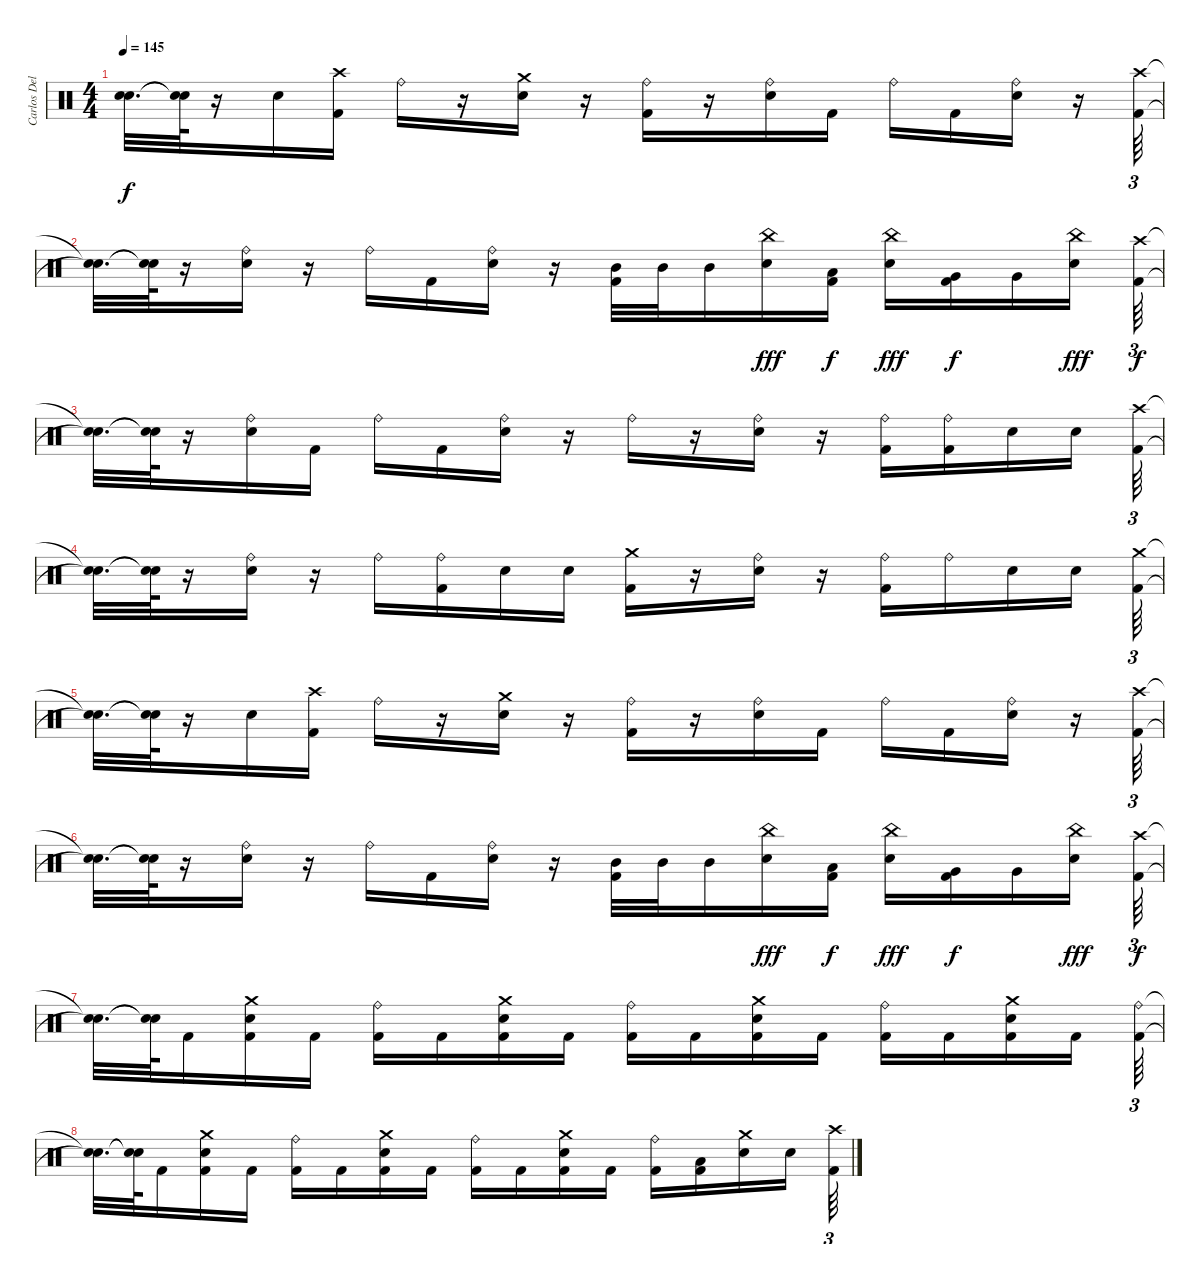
\track ("Carlos Delgado" "Carlos Del") {instrument percussion}
\staff {score}
\articulation defaults
\ts (4 4)
\tempo 145
\clef neutral
\ks c
("Snare (hit)"{t} "Snare (hit)"{t}).32{d dy f} ("Snare (hit)"{t} "Snare (hit)"{t}).64 r.16 "Electric Snare (hit)".16 ("Kick (hit) 2" "Crash high (hit)").16 "Ride (bell)".16 r.16 ("Crash medium (hit)" "Electric Snare (hit)").16 r.16 ("Ride (bell)" "Kick (hit) 2").16 r.16 ("Ride (bell)" "Electric Snare (hit)").16 "Kick (hit) 2".16 "Ride (bell)".16 "Kick (hit) 2".16 ("Ride (bell)" "Electric Snare (hit)").16 r.16 ("Kick (hit) 2" "Crash high (hit)").64{tu (3 2)} |
("Snare (hit)"{t} "Snare (hit)"{t}).32{d} ("Snare (hit)"{t} "Snare (hit)"{t}).64 r.16 ("Ride (bell)" "Electric Snare (hit)").16 r.16 "Ride (bell)".16 "Kick (hit) 2".16 ("Ride (bell)" "Electric Snare (hit)").16 r.16 ("Mid Tom (hit)" "Kick (hit) 2").32 "Mid Tom (hit)".32 "Mid Tom (hit)".16 ("China (hit)" "Electric Snare (hit)").16{dy fff} ("Low Tom (hit)" "Kick (hit) 2").16{dy f} ("China (hit)" "Electric Snare (hit)").16{dy fff} ("Very Low Tom (hit)" "Kick (hit) 2").16{dy f} "Very Low Tom (hit)".16 ("Electric Snare (hit)" "China (hit)").16{dy fff} ("Crash high (hit)" "Kick (hit) 2").64{tu (3 2) dy f} |
("Snare (hit)"{t} "Snare (hit)"{t}).32{d} ("Snare (hit)"{t} "Snare (hit)"{t}).64 r.16 ("Ride (bell)" "Electric Snare (hit)").16 "Kick (hit) 2".16 "Ride (bell)".16 "Kick (hit) 2".16 ("Ride (bell)" "Electric Snare (hit)").16 r.16 "Ride (bell)".16 r.16 ("Ride (bell)" "Electric Snare (hit)").16 r.16 ("Kick (hit) 2" "Ride (bell)").16 ("Kick (hit) 2" "Ride (bell)").16 "Electric Snare (hit)".16 "Electric Snare (hit)".16 ("Crash high (hit)" "Kick (hit) 2").64{tu (3 2)} |
("Snare (hit)"{t} "Snare (hit)"{t}).32{d} ("Snare (hit)"{t} "Snare (hit)"{t}).64 r.16 ("Ride (bell)" "Electric Snare (hit)").16 r.16 "Ride (bell)".16 ("Ride (bell)" "Kick (hit) 2").16 "Electric Snare (hit)".16 "Electric Snare (hit)".16 ("Crash medium (hit)" "Kick (hit) 2").16 r.16 ("Ride (bell)" "Electric Snare (hit)").16 r.16 ("Kick (hit) 2" "Ride (bell)").16 "Ride (bell)".16 "Electric Snare (hit)".16 "Electric Snare (hit)".16 ("Kick (hit) 2" "Crash medium (hit)").64{tu (3 2)} |
("Snare (hit)"{t} "Snare (hit)"{t}).32{d} ("Snare (hit)"{t} "Snare (hit)"{t}).64 r.16 "Electric Snare (hit)".16 ("Kick (hit) 2" "Crash high (hit)").16 "Ride (bell)".16 r.16 ("Crash medium (hit)" "Electric Snare (hit)").16 r.16 ("Ride (bell)" "Kick (hit) 2").16 r.16 ("Ride (bell)" "Electric Snare (hit)").16 "Kick (hit) 2".16 "Ride (bell)".16 "Kick (hit) 2".16 ("Ride (bell)" "Electric Snare (hit)").16 r.16 ("Kick (hit) 2" "Crash high (hit)").64{tu (3 2)} |
("Snare (hit)"{t} "Snare (hit)"{t}).32{d} ("Snare (hit)"{t} "Snare (hit)"{t}).64 r.16 ("Ride (bell)" "Electric Snare (hit)").16 r.16 "Ride (bell)".16 "Kick (hit) 2".16 ("Ride (bell)" "Electric Snare (hit)").16 r.16 ("Mid Tom (hit)" "Kick (hit) 2").32 "Mid Tom (hit)".32 "Mid Tom (hit)".16 ("China (hit)" "Electric Snare (hit)").16{dy fff} ("Low Tom (hit)" "Kick (hit) 2").16{dy f} ("China (hit)" "Electric Snare (hit)").16{dy fff} ("Very Low Tom (hit)" "Kick (hit) 2").16{dy f} "Very Low Tom (hit)".16 ("Electric Snare (hit)" "China (hit)").16{dy fff} ("Kick (hit) 2" "Crash high (hit)").64{tu (3 2) dy f} |
("Snare (hit)"{t} "Snare (hit)"{t}).32{d} ("Snare (hit)"{t} "Snare (hit)"{t}).64 "Kick (hit) 2".16 ("Kick (hit) 2" "Crash medium (hit)" "Electric Snare (hit)").16 "Kick (hit) 2".16 ("Kick (hit) 2" "Ride (bell)").16 "Kick (hit) 2".16 ("Kick (hit) 2" "Crash medium (hit)" "Electric Snare (hit)").16 "Kick (hit) 2".16 ("Ride (bell)" "Kick (hit) 2").16 "Kick (hit) 2".16 ("Kick (hit) 2" "Crash medium (hit)" "Electric Snare (hit)").16 "Kick (hit) 2".16 ("Kick (hit) 2" "Ride (bell)").16 "Kick (hit) 2".16 ("Kick (hit) 2" "Crash medium (hit)" "Electric Snare (hit)").16 "Kick (hit) 2".16 ("Kick (hit) 2" "Ride (bell)").64{tu (3 2)} |
("Snare (hit)"{t} "Snare (hit)"{t}).32{d} ("Snare (hit)"{t} "Snare (hit)"{t}).64 "Kick (hit) 2".16 ("Kick (hit) 2" "Crash medium (hit)" "Electric Snare (hit)").16 "Kick (hit) 2".16 ("Kick (hit) 2" "Ride (bell)").16 "Kick (hit) 2".16 ("Kick (hit) 2" "Crash medium (hit)" "Electric Snare (hit)").16 "Kick (hit) 2".16 ("Kick (hit) 2" "Ride (bell)").16 "Kick (hit) 2".16 ("Kick (hit) 2" "Crash medium (hit)" "Electric Snare (hit)").16 "Kick (hit) 2".16 ("Kick (hit) 2" "Ride (bell)").16 ("Kick (hit) 2" "Low Tom (hit)").16 ("Crash medium (hit)" "Electric Snare (hit)").16 "Electric Snare (hit)".16 ("Kick (hit) 2" "Crash high (hit)").64{tu (3 2)}
